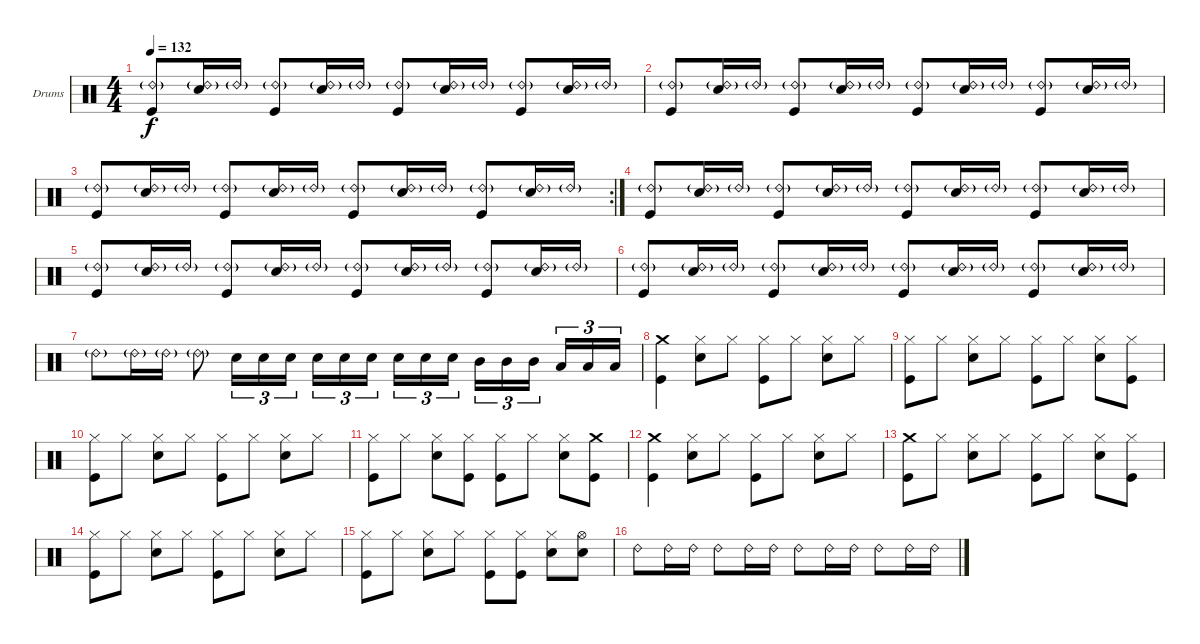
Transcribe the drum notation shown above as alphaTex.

\defaultSystemsLayout 4
\bracketExtendMode groupsimilarinstruments
\firstSystemTrackNameOrientation horizontal
\otherSystemsTrackNameOrientation horizontal
\track ("Drumkit" "Drums") {instrument percussion}
\staff {score}
\articulation defaults
\ts (4 4)
\tempo 132
\clef neutral
\ks c
("Ride (bell) 2"{g} "Kick (hit)").8{dy f} ("Ride (bell) 2"{g} "Snare (hit) 2").16 "Ride (bell) 2"{g}.16 ("Ride (bell) 2"{g} "Kick (hit)").8 ("Ride (bell) 2"{g} "Snare (hit) 2").16 "Ride (bell) 2"{g}.16 ("Ride (bell) 2"{g} "Kick (hit)").8 ("Ride (bell) 2"{g} "Snare (hit) 2").16 "Ride (bell) 2"{g}.16 ("Ride (bell) 2"{g} "Kick (hit)").8 ("Ride (bell) 2"{g} "Snare (hit) 2").16 "Ride (bell) 2"{g}.16 |
("Ride (bell) 2"{g} "Kick (hit)").8 ("Ride (bell) 2"{g} "Snare (hit) 2").16 "Ride (bell) 2"{g}.16 ("Ride (bell) 2"{g} "Kick (hit)").8 ("Ride (bell) 2"{g} "Snare (hit) 2").16 "Ride (bell) 2"{g}.16 ("Ride (bell) 2"{g} "Kick (hit)").8 ("Ride (bell) 2"{g} "Snare (hit) 2").16 "Ride (bell) 2"{g}.16 ("Ride (bell) 2"{g} "Kick (hit)").8 ("Ride (bell) 2"{g} "Snare (hit) 2").16 "Ride (bell) 2"{g}.16 |
\rc 2
("Ride (bell) 2"{g} "Kick (hit)").8 ("Ride (bell) 2"{g} "Snare (hit) 2").16 "Ride (bell) 2"{g}.16 ("Ride (bell) 2"{g} "Kick (hit)").8 ("Ride (bell) 2"{g} "Snare (hit) 2").16 "Ride (bell) 2"{g}.16 ("Ride (bell) 2"{g} "Kick (hit)").8 ("Ride (bell) 2"{g} "Snare (hit) 2").16 "Ride (bell) 2"{g}.16 ("Ride (bell) 2"{g} "Kick (hit)").8 ("Ride (bell) 2"{g} "Snare (hit) 2").16 "Ride (bell) 2"{g}.16 |
("Ride (bell) 2"{g} "Kick (hit)").8 ("Ride (bell) 2"{g} "Snare (hit) 2").16 "Ride (bell) 2"{g}.16 ("Ride (bell) 2"{g} "Kick (hit)").8 ("Ride (bell) 2"{g} "Snare (hit) 2").16 "Ride (bell) 2"{g}.16 ("Ride (bell) 2"{g} "Kick (hit)").8 ("Ride (bell) 2"{g} "Snare (hit) 2").16 "Ride (bell) 2"{g}.16 ("Ride (bell) 2"{g} "Kick (hit)").8 ("Ride (bell) 2"{g} "Snare (hit) 2").16 "Ride (bell) 2"{g}.16 |
("Ride (bell) 2"{g} "Kick (hit)").8 ("Ride (bell) 2"{g} "Snare (hit) 2").16 "Ride (bell) 2"{g}.16 ("Ride (bell) 2"{g} "Kick (hit)").8 ("Ride (bell) 2"{g} "Snare (hit) 2").16 "Ride (bell) 2"{g}.16 ("Ride (bell) 2"{g} "Kick (hit)").8 ("Ride (bell) 2"{g} "Snare (hit) 2").16 "Ride (bell) 2"{g}.16 ("Ride (bell) 2"{g} "Kick (hit)").8 ("Ride (bell) 2"{g} "Snare (hit) 2").16 "Ride (bell) 2"{g}.16 |
("Ride (bell) 2"{g} "Kick (hit)").8 ("Ride (bell) 2"{g} "Snare (hit) 2").16 "Ride (bell) 2"{g}.16 ("Ride (bell) 2"{g} "Kick (hit)").8 ("Ride (bell) 2"{g} "Snare (hit) 2").16 "Ride (bell) 2"{g}.16 ("Ride (bell) 2"{g} "Kick (hit)").8 ("Ride (bell) 2"{g} "Snare (hit) 2").16 "Ride (bell) 2"{g}.16 ("Ride (bell) 2"{g} "Kick (hit)").8 ("Ride (bell) 2"{g} "Snare (hit) 2").16 "Ride (bell) 2"{g}.16 |
"Ride (bell) 2"{g}.8 "Ride (bell) 2"{g}.16 "Ride (bell) 2"{g}.16 "Ride (bell) 2"{g}.8 "Snare (hit) 2".16{tu (3 2)} "Snare (hit) 2".16{tu (3 2)} "Snare (hit) 2".16{tu (3 2)} "Snare (hit) 2".16{tu (3 2)} "Snare (hit) 2".16{tu (3 2)} "Snare (hit) 2".16{tu (3 2)} "Snare (hit) 2".16{tu (3 2)} "Snare (hit) 2".16{tu (3 2)} "Snare (hit) 2".16{tu (3 2)} "Mid Tom (hit)".16{tu (3 2)} "Mid Tom (hit)".16{tu (3 2)} "Mid Tom (hit)".16{tu (3 2)} "Low Tom (hit)".16{tu (3 2)} "Low Tom (hit)".16{tu (3 2)} "Low Tom (hit)".16{tu (3 2)} |
("Kick (hit)" "Crash medium (hit)").4 ("Snare (hit) 2" "Hi-Hat (closed)").8 "Hi-Hat (closed)".8 ("Kick (hit)" "Hi-Hat (closed)").8 "Hi-Hat (closed)".8 ("Snare (hit) 2" "Hi-Hat (closed)").8 "Hi-Hat (closed)".8 |
("Kick (hit)" "Hi-Hat (closed)").8 "Hi-Hat (closed)".8 ("Snare (hit) 2" "Hi-Hat (closed)").8 "Hi-Hat (closed)".8 ("Kick (hit)" "Hi-Hat (closed)").8 "Hi-Hat (closed)".8 ("Snare (hit) 2" "Hi-Hat (closed)").8 ("Kick (hit)" "Hi-Hat (closed)").8 |
("Kick (hit)" "Hi-Hat (closed)").8 "Hi-Hat (closed)".8 ("Snare (hit) 2" "Hi-Hat (closed)").8 "Hi-Hat (closed)".8 ("Kick (hit)" "Hi-Hat (closed)").8 "Hi-Hat (closed)".8 ("Snare (hit) 2" "Hi-Hat (closed)").8 "Hi-Hat (closed)".8 |
("Kick (hit)" "Hi-Hat (closed)").8 "Hi-Hat (closed)".8 ("Snare (hit) 2" "Hi-Hat (closed)").8 ("Kick (hit)" "Hi-Hat (closed)").8 ("Kick (hit)" "Hi-Hat (closed)").8 "Hi-Hat (closed)".8 ("Snare (hit) 2" "Hi-Hat (closed)").8 ("Kick (hit)" "Crash medium (hit)").8 |
("Kick (hit)" "Crash medium (hit)").4 ("Snare (hit) 2" "Hi-Hat (closed)").8 "Hi-Hat (closed)".8 ("Kick (hit)" "Hi-Hat (closed)").8 "Hi-Hat (closed)".8 ("Snare (hit) 2" "Hi-Hat (closed)").8 "Hi-Hat (closed)".8 |
("Kick (hit)" "Crash medium (hit)").8 "Hi-Hat (closed)".8 ("Snare (hit) 2" "Hi-Hat (closed)").8 "Hi-Hat (closed)".8 ("Kick (hit)" "Hi-Hat (closed)").8 "Hi-Hat (closed)".8 ("Snare (hit) 2" "Hi-Hat (closed)").8 ("Kick (hit)" "Hi-Hat (closed)").8 |
("Kick (hit)" "Hi-Hat (closed)").8 "Hi-Hat (closed)".8 ("Snare (hit) 2" "Hi-Hat (closed)").8 "Hi-Hat (closed)".8 ("Kick (hit)" "Hi-Hat (closed)").8 "Hi-Hat (closed)".8 ("Snare (hit) 2" "Hi-Hat (closed)").8 "Hi-Hat (closed)".8 |
("Kick (hit)" "Hi-Hat (closed)").8 "Hi-Hat (closed)".8 ("Snare (hit) 2" "Hi-Hat (closed)").8 "Hi-Hat (closed)".8 ("Kick (hit)" "Hi-Hat (closed)").8 ("Kick (hit)" "Hi-Hat (closed)").8 ("Snare (hit) 2" "Hi-Hat (closed)").8 ("Snare (hit) 2" "Hi-Hat (open)").8 |
"Ride (bell) 2".8 "Ride (bell) 2".16 "Ride (bell) 2".16 "Ride (bell) 2".8 "Ride (bell) 2".16 "Ride (bell) 2".16 "Ride (bell) 2".8 "Ride (bell) 2".16 "Ride (bell) 2".16 "Ride (bell) 2".8 "Ride (bell) 2".16 "Ride (bell) 2".16
